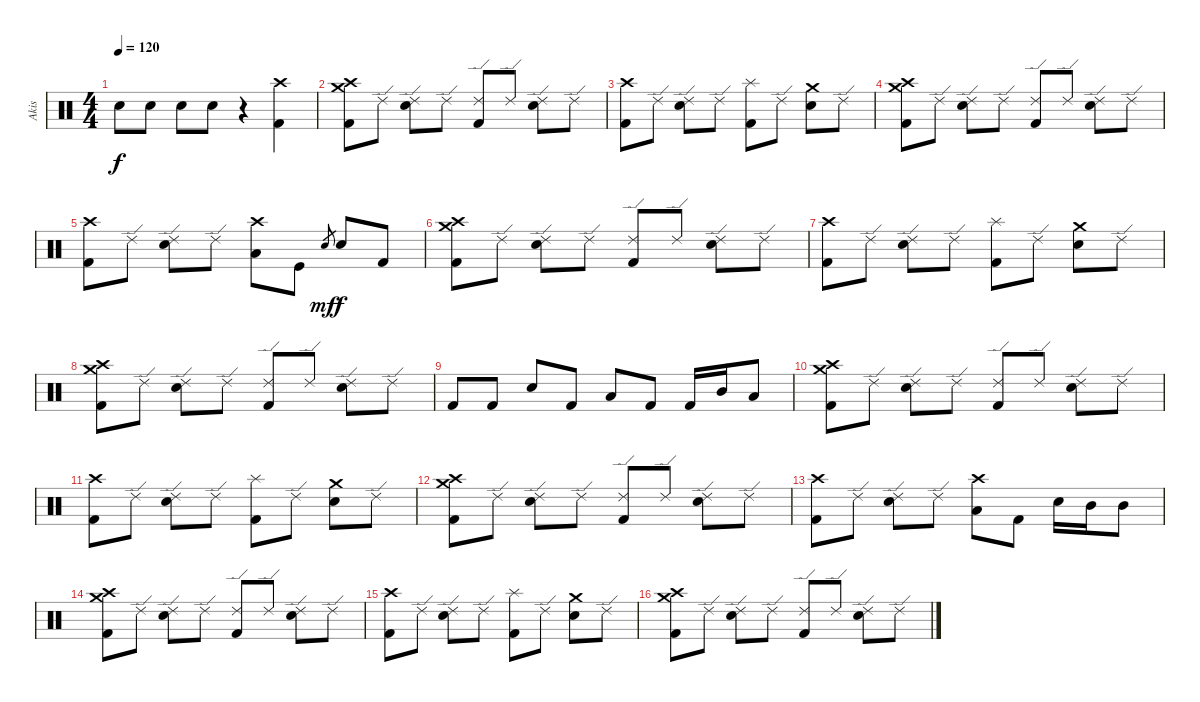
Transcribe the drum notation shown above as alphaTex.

\track ("Akis" "Akis") {instrument percussion}
\staff {score}
\articulation defaults
\ts (4 4)
\tempo 120
\clef neutral
\ks c "Electric Snare (hit)".8{dy f} "Electric Snare (hit)".8 "Electric Snare (hit)".8 "Electric Snare (hit)".8
r.4 ("Crash high (hit)" "Kick (hit) 2").4 |
("Crash high (hit)" "Kick (hit) 2" "Crash medium (hit)").8 "Ride (edge) 2".8 ("Ride (edge) 2" "Electric Snare (hit)").8 "Ride (edge) 2".8 ("Ride (edge) 2" "Kick (hit) 2").8 "Ride (edge) 2".8 ("Ride (edge) 2" "Electric Snare (hit)").8 "Ride (edge) 2".8 |
("Crash high (hit)" "Kick (hit) 2").8 "Ride (edge) 2".8 ("Ride (edge) 2" "Electric Snare (hit)").8 "Ride (edge) 2".8 ("Splash (hit)" "Kick (hit) 2").8 "Ride (edge) 2".8 ("Crash medium (hit)" "Electric Snare (hit)").8 "Ride (edge) 2".8 |
("Crash high (hit)" "Kick (hit) 2" "Crash medium (hit)").8 "Ride (edge) 2".8 ("Ride (edge) 2" "Electric Snare (hit)").8 "Ride (edge) 2".8 ("Ride (edge) 2" "Kick (hit) 2").8 "Ride (edge) 2".8 ("Ride (edge) 2" "Electric Snare (hit)").8 "Ride (edge) 2".8 |
("Crash high (hit)" "Kick (hit) 2").8 "Ride (edge) 2".8 ("Ride (edge) 2" "Electric Snare (hit)").8 "Ride (edge) 2".8 ("Crash high (hit)" "Low Tom (hit)").8 "Kick (hit)".8 "Electric Snare (hit)".8{gr dy mf} "Electric Snare (hit)".8{dy f} "Kick (hit) 2".8 |
("Crash high (hit)" "Kick (hit) 2" "Crash medium (hit)").8 "Ride (edge) 2".8 ("Ride (edge) 2" "Electric Snare (hit)").8 "Ride (edge) 2".8 ("Ride (edge) 2" "Kick (hit) 2").8 "Ride (edge) 2".8 ("Ride (edge) 2" "Electric Snare (hit)").8 "Ride (edge) 2".8 |
("Crash high (hit)" "Kick (hit) 2").8 "Ride (edge) 2".8 ("Ride (edge) 2" "Electric Snare (hit)").8 "Ride (edge) 2".8 ("Splash (hit)" "Kick (hit) 2").8 "Ride (edge) 2".8 ("Crash medium (hit)" "Electric Snare (hit)").8 "Ride (edge) 2".8 |
("Crash high (hit)" "Kick (hit) 2" "Crash medium (hit)").8 "Ride (edge) 2".8 ("Ride (edge) 2" "Electric Snare (hit)").8 "Ride (edge) 2".8 ("Ride (edge) 2" "Kick (hit) 2").8 "Ride (edge) 2".8 ("Ride (edge) 2" "Electric Snare (hit)").8 "Ride (edge) 2".8 |
"Kick (hit) 2".8 "Kick (hit) 2".8 "Electric Snare (hit)".8 "Kick (hit) 2".8 "Low Tom (hit)".8 "Kick (hit) 2".8 "Kick (hit) 2".16 "Mid Tom (hit)".16 "Low Tom (hit)".8 |
("Crash high (hit)" "Kick (hit) 2" "Crash medium (hit)").8 "Ride (edge) 2".8 ("Ride (edge) 2" "Electric Snare (hit)").8 "Ride (edge) 2".8 ("Ride (edge) 2" "Kick (hit) 2").8 "Ride (edge) 2".8 ("Ride (edge) 2" "Electric Snare (hit)").8 "Ride (edge) 2".8 |
("Crash high (hit)" "Kick (hit) 2").8 "Ride (edge) 2".8 ("Ride (edge) 2" "Electric Snare (hit)").8 "Ride (edge) 2".8 ("Splash (hit)" "Kick (hit) 2").8 "Ride (edge) 2".8 ("Crash medium (hit)" "Electric Snare (hit)").8 "Ride (edge) 2".8 |
("Crash high (hit)" "Kick (hit) 2" "Crash medium (hit)").8 "Ride (edge) 2".8 ("Ride (edge) 2" "Electric Snare (hit)").8 "Ride (edge) 2".8 ("Ride (edge) 2" "Kick (hit) 2").8 "Ride (edge) 2".8 ("Ride (edge) 2" "Electric Snare (hit)").8 "Ride (edge) 2".8 |
("Crash high (hit)" "Kick (hit) 2").8 "Ride (edge) 2".8 ("Ride (edge) 2" "Electric Snare (hit)").8 "Ride (edge) 2".8 ("Crash high (hit)" "Low Tom (hit)").8 "Kick (hit) 2".8 "Snare (hit) 2".16 "Mid Tom (hit)".16 "Mid Tom (hit)".8 |
("Crash high (hit)" "Kick (hit) 2" "Crash medium (hit)").8 "Ride (edge) 2".8 ("Ride (edge) 2" "Electric Snare (hit)").8 "Ride (edge) 2".8 ("Ride (edge) 2" "Kick (hit) 2").8 "Ride (edge) 2".8 ("Ride (edge) 2" "Electric Snare (hit)").8 "Ride (edge) 2".8 |
("Crash high (hit)" "Kick (hit) 2").8 "Ride (edge) 2".8 ("Ride (edge) 2" "Electric Snare (hit)").8 "Ride (edge) 2".8 ("Splash (hit)" "Kick (hit) 2").8 "Ride (edge) 2".8 ("Crash medium (hit)" "Electric Snare (hit)").8 "Ride (edge) 2".8 |
("Crash high (hit)" "Kick (hit) 2" "Crash medium (hit)").8 "Ride (edge) 2".8 ("Ride (edge) 2" "Electric Snare (hit)").8 "Ride (edge) 2".8 ("Ride (edge) 2" "Kick (hit) 2").8 "Ride (edge) 2".8 ("Ride (edge) 2" "Electric Snare (hit)").8 "Ride (edge) 2".8
